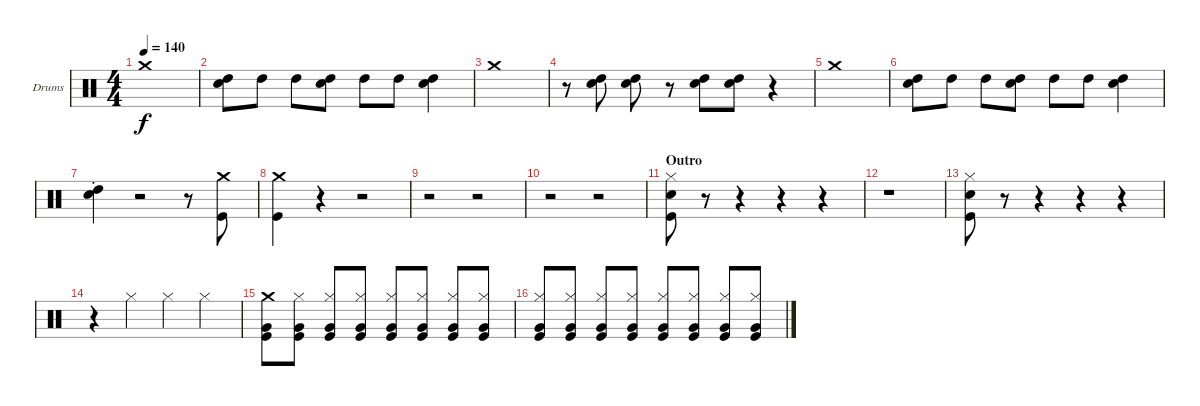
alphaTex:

\bracketExtendMode groupsimilarinstruments
\firstSystemTrackNameOrientation horizontal
\otherSystemsTrackNameOrientation horizontal
\track ("Drumkit" "Drums") {instrument percussion}
\staff {score}
\articulation defaults
\ts (4 4)
\tempo 140
\clef neutral
\ks c "Crash medium (hit)".1{dy f}
|
("High Tom (hit)" "Snare (hit) 2").8 "High Tom (hit)".8 "High Tom (hit)".8 ("High Tom (hit)" "Snare (hit) 2").8 "High Tom (hit)".8 "High Tom (hit)".8 ("High Tom (hit)" "Snare (hit) 2").4 |
"Crash medium (hit)".1 |
r.8 ("High Tom (hit)" "Snare (hit) 2").8 ("High Tom (hit)" "Snare (hit) 2").8 r.8 ("High Tom (hit)" "Snare (hit) 2").8 ("High Tom (hit)" "Snare (hit) 2").8 r.4 |
"Crash medium (hit)".1 |
("High Tom (hit)" "Snare (hit) 2").8 "High Tom (hit)".8 "High Tom (hit)".8 ("High Tom (hit)" "Snare (hit) 2").8 "High Tom (hit)".8 "High Tom (hit)".8 ("High Tom (hit)" "Snare (hit) 2").4 |
("High Tom (hit)"{st} "Snare (hit) 2"{st}).4 r.2 r.8 ("Crash medium (hit)" "Kick (hit)").8 |
("Crash medium (hit)" "Kick (hit)").4 r.4 r.2 |
r.2 r.2 |
r.2 r.2 |
\section ("" "Outro")
("Snare (hit) 2" "Hi-Hat (closed)" "Kick (hit)").8 r.8 r.4 r.4 r.4 |
r.1 |
("Snare (hit) 2" "Hi-Hat (closed)" "Kick (hit)").8 r.8 r.4 r.4 r.4 |
r.4 "Hi-Hat (closed)".4 "Hi-Hat (closed)".4 "Hi-Hat (closed)".4 |
("Crash medium (hit)" "Kick (hit)" "Very Low Tom (hit)").8 ("Hi-Hat (closed)" "Kick (hit)" "Very Low Tom (hit)").8 ("Hi-Hat (closed)" "Kick (hit)" "Very Low Tom (hit)").8 ("Hi-Hat (closed)" "Kick (hit)" "Very Low Tom (hit)").8 ("Hi-Hat (closed)" "Kick (hit)" "Very Low Tom (hit)").8 ("Hi-Hat (closed)" "Kick (hit)" "Very Low Tom (hit)").8 ("Hi-Hat (closed)" "Kick (hit)" "Very Low Tom (hit)").8 ("Hi-Hat (closed)" "Kick (hit)" "Very Low Tom (hit)").8 |
("Hi-Hat (closed)" "Kick (hit)" "Very Low Tom (hit)").8 ("Hi-Hat (closed)" "Kick (hit)" "Very Low Tom (hit)").8 ("Hi-Hat (closed)" "Kick (hit)" "Very Low Tom (hit)").8 ("Hi-Hat (closed)" "Kick (hit)" "Very Low Tom (hit)").8 ("Hi-Hat (closed)" "Kick (hit)" "Very Low Tom (hit)").8 ("Hi-Hat (closed)" "Kick (hit)" "Very Low Tom (hit)").8 ("Hi-Hat (closed)" "Kick (hit)" "Very Low Tom (hit)").8 ("Hi-Hat (closed)" "Kick (hit)" "Very Low Tom (hit)").8
